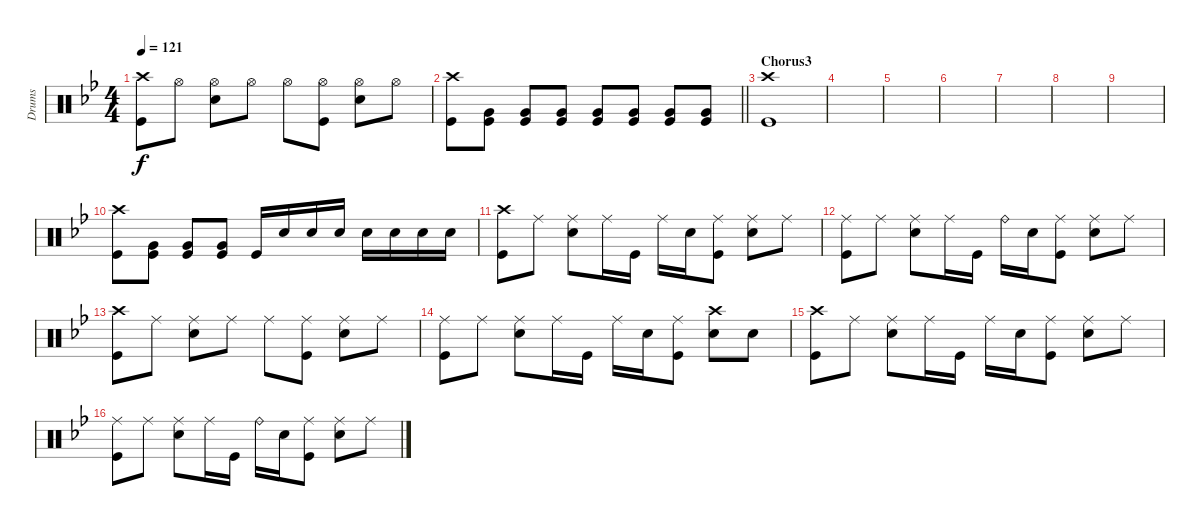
\track ("Drums" "Drums") {instrument percussion}
\staff {score}
\articulation defaults
\ts (4 4)
\tempo 121
\clef neutral
\ks bb
("Kick (hit)" "Crash high (hit)").8{dy f} "Hi-Hat (open)".8 ("Hi-Hat (open)" "Snare (hit) 2").8 "Hi-Hat (open)".8 "Hi-Hat (open)".8 ("Hi-Hat (open)" "Kick (hit)").8 ("Hi-Hat (open)" "Snare (hit) 2").8 "Hi-Hat (open)".8 |
\barLineRight lightlight
("Crash high (hit)" "Kick (hit)").8 ("Kick (hit)" "Very Low Tom (hit)").8 ("Very Low Tom (hit)" "Kick (hit)").8 ("Kick (hit)" "Very Low Tom (hit)").8 ("Very Low Tom (hit)" "Kick (hit)").8 ("Kick (hit)" "Very Low Tom (hit)").8 ("Very Low Tom (hit)" "Kick (hit)").8 ("Kick (hit)" "Very Low Tom (hit)").8 |
\section ("" "Chorus3")
("Kick (hit)" "Crash high (hit)").1 |
|
|
|
|
|
|
("Crash high (hit)" "Kick (hit)").8 ("Kick (hit)" "Very Low Tom (hit)").8 ("Very Low Tom (hit)" "Kick (hit)").8 ("Very Low Tom (hit)" "Kick (hit)").8 "Kick (hit)".16 "Snare (hit) 2".16 "Snare (hit) 2".16 "Snare (hit) 2".16 "Snare (hit) 2".16 "Snare (hit) 2".16 "Snare (hit) 2".16 "Snare (hit) 2".16 |
("Crash high (hit)" "Kick (hit)").8 "Ride (middle)".8 ("Ride (middle)" "Snare (hit) 2").8 "Ride (middle)".16 "Kick (hit)".16 "Ride (middle)".16 "Snare (hit) 2".16 ("Ride (middle)" "Kick (hit)").8 ("Ride (middle)" "Snare (hit) 2").8 "Ride (middle)".8 |
("Ride (middle)" "Kick (hit)").8 "Ride (middle)".8 ("Ride (middle)" "Snare (hit) 2").8 "Ride (middle)".16 "Kick (hit)".16 "Ride (bell)".16 "Snare (hit) 2".16 ("Ride (middle)" "Kick (hit)").8 ("Ride (middle)" "Snare (hit) 2").8 "Ride (middle)".8 |
("Crash high (hit)" "Kick (hit)").8 "Ride (middle)".8 ("Ride (middle)" "Snare (hit) 2").8 "Ride (middle)".8 "Ride (middle)".8 ("Kick (hit)" "Ride (middle)").8 ("Snare (hit) 2" "Ride (middle)").8 "Ride (middle)".8 |
("Ride (middle)" "Kick (hit)").8 "Ride (middle)".8 ("Ride (middle)" "Snare (hit) 2").8 "Ride (middle)".16 "Kick (hit)".16 "Ride (middle)".16 "Snare (hit) 2".16 ("Ride (middle)" "Kick (hit)").8 ("Crash high (hit)" "Snare (hit) 2").8 "Snare (hit) 2".8 |
("Crash high (hit)" "Kick (hit)").8 "Ride (middle)".8 ("Ride (middle)" "Snare (hit) 2").8 "Ride (middle)".16 "Kick (hit)".16 "Ride (middle)".16 "Snare (hit) 2".16 ("Ride (middle)" "Kick (hit)").8 ("Ride (middle)" "Snare (hit) 2").8 "Ride (middle)".8 |
("Ride (middle)" "Kick (hit)").8 "Ride (middle)".8 ("Ride (middle)" "Snare (hit) 2").8 "Ride (middle)".16 "Kick (hit)".16 "Ride (bell)".16 "Snare (hit) 2".16 ("Ride (middle)" "Kick (hit)").8 ("Ride (middle)" "Snare (hit) 2").8 "Ride (middle)".8
